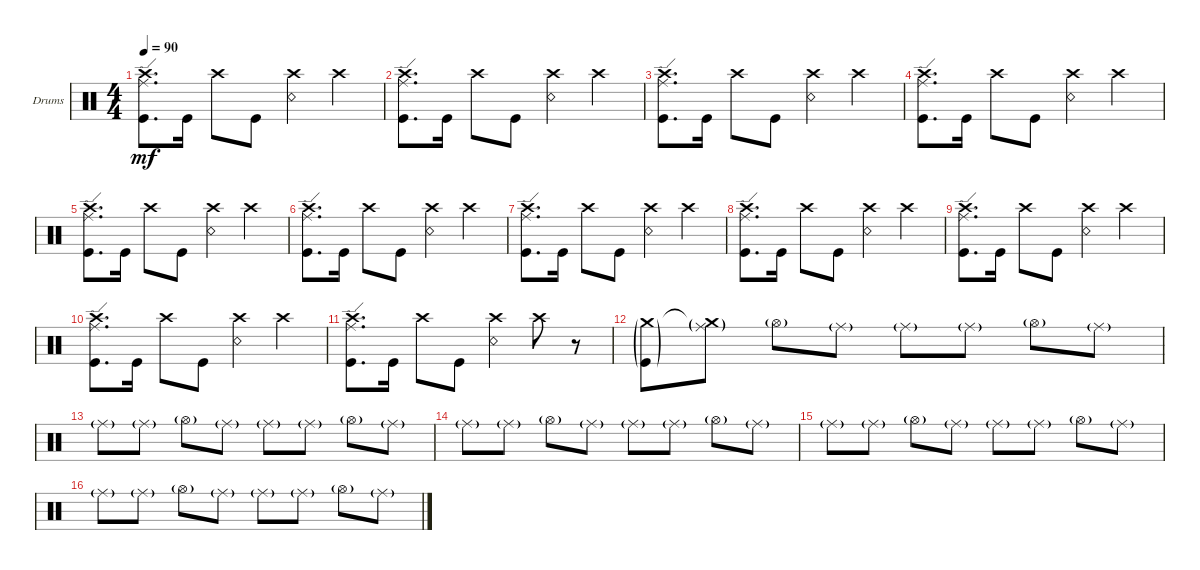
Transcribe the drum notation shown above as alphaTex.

\defaultSystemsLayout 4
\bracketExtendMode groupsimilarinstruments
\firstSystemTrackNameOrientation horizontal
\otherSystemsTrackNameOrientation horizontal
\track ("Drumkit" "Drums") {instrument percussion}
\staff {score}
\articulation defaults
\ts (4 4)
\tempo 90
\clef neutral
\ks c
("Crash high (hit)" "Ride (edge)" "Kick (hit)").8{d dy mf} "Kick (hit)".16 "Crash high (hit)".8 "Kick (hit)".8 ("Snare (rim shot)" "Crash high (hit)").4 "Crash high (hit)".4 |
("Crash high (hit)" "Ride (edge)" "Kick (hit)").8{d} "Kick (hit)".16 "Crash high (hit)".8 "Kick (hit)".8 ("Snare (rim shot)" "Crash high (hit)").4 "Crash high (hit)".4 |
("Crash high (hit)" "Ride (edge)" "Kick (hit)").8{d} "Kick (hit)".16 "Crash high (hit)".8 "Kick (hit)".8 ("Snare (rim shot)" "Crash high (hit)").4 "Crash high (hit)".4 |
("Crash high (hit)" "Ride (edge)" "Kick (hit)").8{d} "Kick (hit)".16 "Crash high (hit)".8 "Kick (hit)".8 ("Snare (rim shot)" "Crash high (hit)").4 "Crash high (hit)".4 |
("Crash high (hit)" "Ride (edge)" "Kick (hit)").8{d} "Kick (hit)".16 "Crash high (hit)".8 "Kick (hit)".8 ("Snare (rim shot)" "Crash high (hit)").4 "Crash high (hit)".4 |
("Crash high (hit)" "Ride (edge)" "Kick (hit)").8{d} "Kick (hit)".16 "Crash high (hit)".8 "Kick (hit)".8 ("Snare (rim shot)" "Crash high (hit)").4 "Crash high (hit)".4 |
("Crash high (hit)" "Ride (edge)" "Kick (hit)").8{d} "Kick (hit)".16 "Crash high (hit)".8 "Kick (hit)".8 ("Snare (rim shot)" "Crash high (hit)").4 "Crash high (hit)".4 |
("Crash high (hit)" "Ride (edge)" "Kick (hit)").8{d} "Kick (hit)".16 "Crash high (hit)".8 "Kick (hit)".8 ("Snare (rim shot)" "Crash high (hit)").4 "Crash high (hit)".4 |
("Crash high (hit)" "Ride (edge)" "Kick (hit)").8{d} "Kick (hit)".16 "Crash high (hit)".8 "Kick (hit)".8 ("Snare (rim shot)" "Crash high (hit)").4 "Crash high (hit)".4 |
("Crash high (hit)" "Ride (edge)" "Kick (hit)").8{d} "Kick (hit)".16 "Crash high (hit)".8 "Kick (hit)".8 ("Snare (rim shot)" "Crash high (hit)").4 "Crash high (hit)".4 |
("Crash high (hit)" "Ride (edge)" "Kick (hit)").8{d} "Kick (hit)".16 "Crash high (hit)".8 "Kick (hit)".8 ("Snare (rim shot)" "Crash high (hit)").4 "Crash high (hit)".8 r.8 |
("Kick (hit)"{g} "Crash medium (hit)"{g}).8 ("Ride (middle)"{g} "Crash medium (hit)"{g t}).8 "Hi-Hat (open)"{g}.8 "Ride (middle)"{g}.8 "Ride (middle)"{g}.8 "Ride (middle)"{g}.8 "Hi-Hat (open)"{g}.8 "Ride (middle)"{g}.8 |
"Ride (middle)"{g}.8 "Ride (middle)"{g}.8 "Hi-Hat (open)"{g}.8 "Ride (middle)"{g}.8 "Ride (middle)"{g}.8 "Ride (middle)"{g}.8 "Hi-Hat (open)"{g}.8 "Ride (middle)"{g}.8 |
"Ride (middle)"{g}.8 "Ride (middle)"{g}.8 "Hi-Hat (open)"{g}.8 "Ride (middle)"{g}.8 "Ride (middle)"{g}.8 "Ride (middle)"{g}.8 "Hi-Hat (open)"{g}.8 "Ride (middle)"{g}.8 |
"Ride (middle)"{g}.8 "Ride (middle)"{g}.8 "Hi-Hat (open)"{g}.8 "Ride (middle)"{g}.8 "Ride (middle)"{g}.8 "Ride (middle)"{g}.8 "Hi-Hat (open)"{g}.8 "Ride (middle)"{g}.8 |
"Ride (middle)"{g}.8 "Ride (middle)"{g}.8 "Hi-Hat (open)"{g}.8 "Ride (middle)"{g}.8 "Ride (middle)"{g}.8 "Ride (middle)"{g}.8 "Hi-Hat (open)"{g}.8 "Ride (middle)"{g}.8
